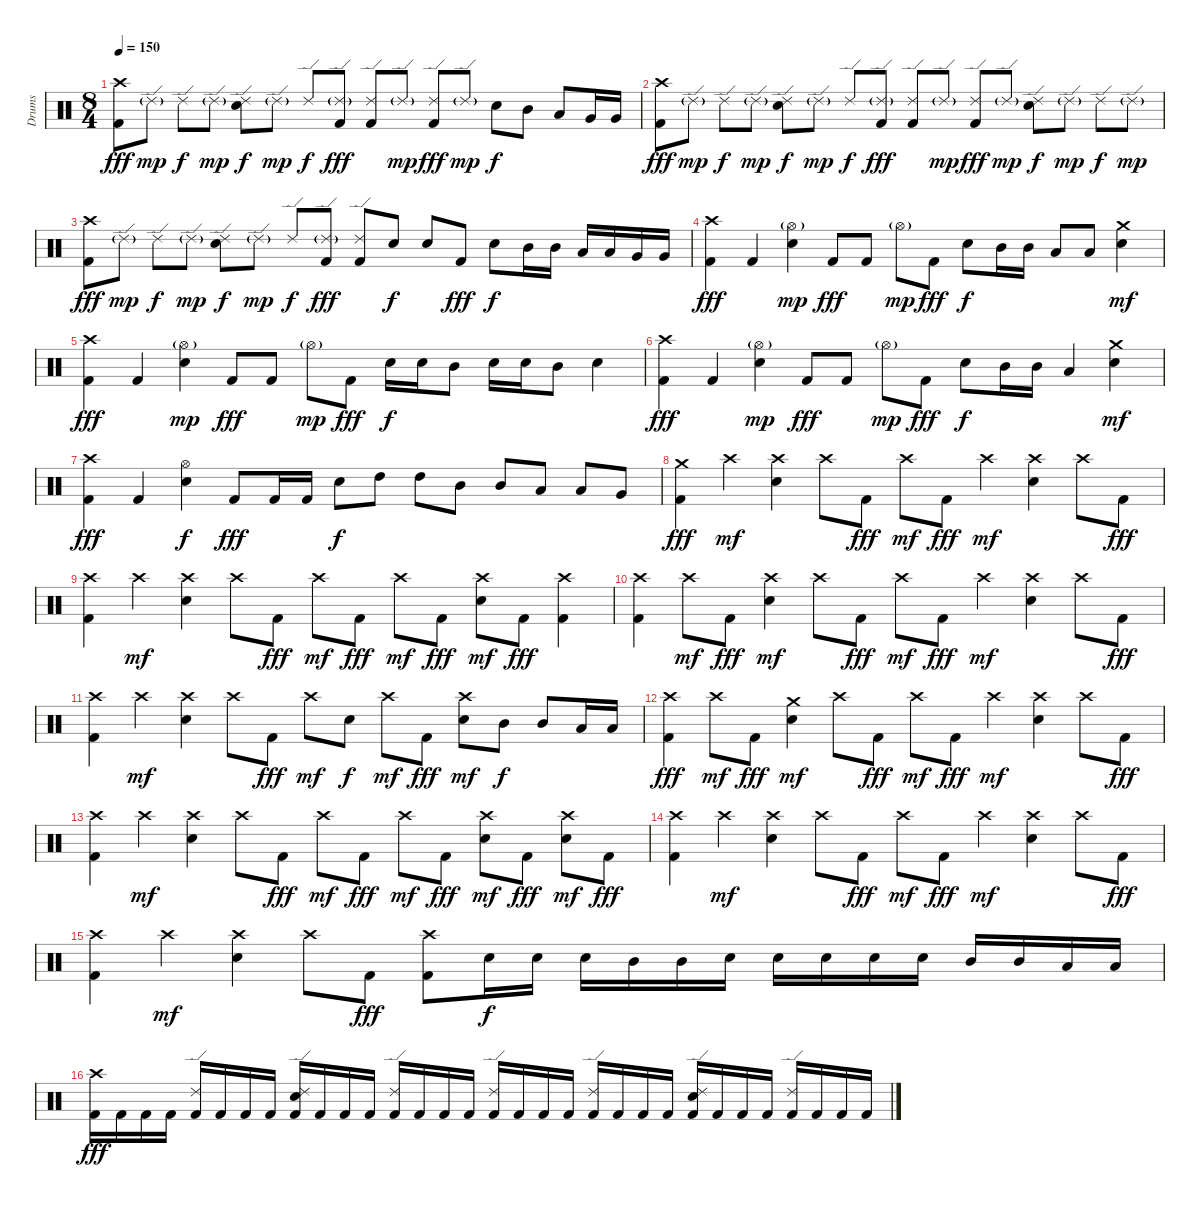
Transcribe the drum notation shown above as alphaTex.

\track ("Drums" "Drums") {instrument percussion}
\staff {score}
\articulation defaults
\ts (8 4)
\tempo 150
\clef neutral
\ks c
("Crash high (hit)" "Kick (hit) 2").8{dy fff} "Ride (edge) 2"{g}.8{dy mp} "Ride (edge) 2".8{dy f} "Ride (edge) 2"{g}.8{dy mp} ("Ride (edge) 2" "Snare (hit) 2").8{dy f} "Ride (edge) 2"{g}.8{dy mp} "Ride (edge) 2".8{dy f} ("Ride (edge) 2"{g} "Kick (hit) 2").8{dy fff} ("Ride (edge) 2" "Kick (hit) 2").8 "Ride (edge) 2"{g}.8{dy mp} ("Ride (edge) 2" "Kick (hit) 2").8{dy fff} "Ride (edge) 2"{g}.8{dy mp} "Snare (hit) 2".8{dy f} "Mid Tom (hit)".8 "Low Tom (hit)".8 "Very Low Tom (hit)".16 "Very Low Tom (hit)".16 |
("Crash high (hit)" "Kick (hit) 2").8{dy fff} "Ride (edge) 2"{g}.8{dy mp} "Ride (edge) 2".8{dy f} "Ride (edge) 2"{g}.8{dy mp} ("Ride (edge) 2" "Snare (hit) 2").8{dy f} "Ride (edge) 2"{g}.8{dy mp} "Ride (edge) 2".8{dy f} ("Ride (edge) 2"{g} "Kick (hit) 2").8{dy fff} ("Ride (edge) 2" "Kick (hit) 2").8 "Ride (edge) 2"{g}.8{dy mp} ("Ride (edge) 2" "Kick (hit) 2").8{dy fff} "Ride (edge) 2"{g}.8{dy mp} ("Ride (edge) 2" "Snare (hit) 2").8{dy f} "Ride (edge) 2"{g}.8{dy mp} "Ride (edge) 2".8{dy f} "Ride (edge) 2"{g}.8{dy mp} |
("Crash high (hit)" "Kick (hit) 2").8{dy fff} "Ride (edge) 2"{g}.8{dy mp} "Ride (edge) 2".8{dy f} "Ride (edge) 2"{g}.8{dy mp} ("Ride (edge) 2" "Snare (hit) 2").8{dy f} "Ride (edge) 2"{g}.8{dy mp} "Ride (edge) 2".8{dy f} ("Ride (edge) 2"{g} "Kick (hit) 2").8{dy fff} ("Ride (edge) 2" "Kick (hit) 2").8 "Snare (hit) 2".8{dy f} "Snare (hit) 2".8 "Kick (hit) 2".8{dy fff} "Snare (hit) 2".8{dy f} "Mid Tom (hit)".16 "Mid Tom (hit)".16 "Low Tom (hit)".16 "Low Tom (hit)".16 "Very Low Tom (hit)".16 "Very Low Tom (hit)".16 |
("Crash high (hit)" "Kick (hit) 2").4{dy fff} "Kick (hit) 2".4 ("Hi-Hat (open)"{g} "Snare (hit) 2").4{dy mp} "Kick (hit) 2".8{dy fff} "Kick (hit) 2".8 "Hi-Hat (open)"{g}.8{dy mp} "Kick (hit) 2".8{dy fff} "Snare (hit) 2".8{dy f} "Mid Tom (hit)".16 "Mid Tom (hit)".16 "Low Tom (hit)".8 "Low Tom (hit)".8 ("Crash medium (hit)" "Snare (hit) 2").4{dy mf} |
("Crash high (hit)" "Kick (hit) 2").4{dy fff} "Kick (hit) 2".4 ("Hi-Hat (open)"{g} "Snare (hit) 2").4{dy mp} "Kick (hit) 2".8{dy fff} "Kick (hit) 2".8 "Hi-Hat (open)"{g}.8{dy mp} "Kick (hit) 2".8{dy fff} "Snare (hit) 2".16{dy f} "Snare (hit) 2".16 "Mid Tom (hit)".8 "Snare (hit) 2".16 "Snare (hit) 2".16 "Mid Tom (hit)".8 "Snare (hit) 2".4 |
("Crash high (hit)" "Kick (hit) 2").4{dy fff} "Kick (hit) 2".4 ("Hi-Hat (open)"{g} "Snare (hit) 2").4{dy mp} "Kick (hit) 2".8{dy fff} "Kick (hit) 2".8 "Hi-Hat (open)"{g}.8{dy mp} "Kick (hit) 2".8{dy fff} "Snare (hit) 2".8{dy f} "Mid Tom (hit)".16 "Mid Tom (hit)".16 "Low Tom (hit)".4 ("Crash medium (hit)" "Snare (hit) 2").4{dy mf} |
("Crash high (hit)" "Kick (hit) 2").4{dy fff} "Kick (hit) 2".4 ("Hi-Hat (open)" "Snare (hit) 2").4{dy f} "Kick (hit) 2".8{dy fff} "Kick (hit) 2".16 "Kick (hit) 2".16 "Snare (hit) 2".8{dy f} "High Tom (hit)".8 "High Tom (hit)".8 "Mid Tom (hit)".8 "Mid Tom (hit)".8 "Low Tom (hit)".8 "Low Tom (hit)".8 "Very Low Tom (hit)".8 |
("Crash medium (hit)" "Kick (hit) 2").4{dy fff} "Crash high (hit)".4{dy mf} ("Crash high (hit)" "Snare (hit) 2").4 "Crash high (hit)".8 "Kick (hit) 2".8{dy fff} "Crash high (hit)".8{dy mf} "Kick (hit) 2".8{dy fff} "Crash high (hit)".4{dy mf} ("Crash high (hit)" "Snare (hit) 2").4 "Crash high (hit)".8 "Kick (hit) 2".8{dy fff} |
("Crash high (hit)" "Kick (hit) 2").4 "Crash high (hit)".4{dy mf} ("Crash high (hit)" "Snare (hit) 2").4 "Crash high (hit)".8 "Kick (hit) 2".8{dy fff} "Crash high (hit)".8{dy mf} "Kick (hit) 2".8{dy fff} "Crash high (hit)".8{dy mf} "Kick (hit) 2".8{dy fff} ("Crash high (hit)" "Snare (hit) 2").8{dy mf} "Kick (hit) 2".8{dy fff} ("Crash high (hit)" "Kick (hit) 2").4 |
("Crash high (hit)" "Kick (hit) 2").4 "Crash high (hit)".8{dy mf} "Kick (hit) 2".8{dy fff} ("Crash high (hit)" "Snare (hit) 2").4{dy mf} "Crash high (hit)".8 "Kick (hit) 2".8{dy fff} "Crash high (hit)".8{dy mf} "Kick (hit) 2".8{dy fff} "Crash high (hit)".4{dy mf} ("Crash high (hit)" "Snare (hit) 2").4 "Crash high (hit)".8 "Kick (hit) 2".8{dy fff} |
("Crash high (hit)" "Kick (hit) 2").4 "Crash high (hit)".4{dy mf} ("Crash high (hit)" "Snare (hit) 2").4 "Crash high (hit)".8 "Kick (hit) 2".8{dy fff} "Crash high (hit)".8{dy mf} "Snare (hit) 2".8{dy f} "Crash high (hit)".8{dy mf} "Kick (hit) 2".8{dy fff} ("Crash high (hit)" "Snare (hit) 2").8{dy mf} "Mid Tom (hit)".8{dy f} "Mid Tom (hit)".8 "Low Tom (hit)".16 "Low Tom (hit)".16 |
("Crash high (hit)" "Kick (hit) 2").4{dy fff} "Crash high (hit)".8{dy mf} "Kick (hit) 2".8{dy fff} ("Crash medium (hit)" "Snare (hit) 2").4{dy mf} "Crash high (hit)".8 "Kick (hit) 2".8{dy fff} "Crash high (hit)".8{dy mf} "Kick (hit) 2".8{dy fff} "Crash high (hit)".4{dy mf} ("Crash high (hit)" "Snare (hit) 2").4 "Crash high (hit)".8 "Kick (hit) 2".8{dy fff} |
("Crash high (hit)" "Kick (hit) 2").4 "Crash high (hit)".4{dy mf} ("Crash high (hit)" "Snare (hit) 2").4 "Crash high (hit)".8 "Kick (hit) 2".8{dy fff} "Crash high (hit)".8{dy mf} "Kick (hit) 2".8{dy fff} "Crash high (hit)".8{dy mf} "Kick (hit) 2".8{dy fff} ("Crash high (hit)" "Snare (hit) 2").8{dy mf} "Kick (hit) 2".8{dy fff} ("Crash high (hit)" "Snare (hit) 2").8{dy mf} "Kick (hit) 2".8{dy fff} |
("Crash high (hit)" "Kick (hit) 2").4 "Crash high (hit)".4{dy mf} ("Crash high (hit)" "Snare (hit) 2").4 "Crash high (hit)".8 "Kick (hit) 2".8{dy fff} "Crash high (hit)".8{dy mf} "Kick (hit) 2".8{dy fff} "Crash high (hit)".4{dy mf} ("Crash high (hit)" "Snare (hit) 2").4 "Crash high (hit)".8 "Kick (hit) 2".8{dy fff} |
("Crash high (hit)" "Kick (hit) 2").4 "Crash high (hit)".4{dy mf} ("Crash high (hit)" "Snare (hit) 2").4 "Crash high (hit)".8 "Kick (hit) 2".8{dy fff} ("Crash high (hit)" "Kick (hit) 2").8 "Snare (hit) 2".16{dy f} "Snare (hit) 2".16 "Snare (hit) 2".16 "Mid Tom (hit)".16 "Mid Tom (hit)".16 "Snare (hit) 2".16 "Snare (hit) 2".16 "Snare (hit) 2".16 "Snare (hit) 2".16 "Snare (hit) 2".16 "Mid Tom (hit)".16 "Mid Tom (hit)".16 "Low Tom (hit)".16 "Low Tom (hit)".16 |
("Crash high (hit)" "Kick (hit) 2").16{dy fff} "Kick (hit) 2".16 "Kick (hit) 2".16 "Kick (hit) 2".16 ("Ride (edge) 2" "Kick (hit) 2").16 "Kick (hit) 2".16 "Kick (hit) 2".16 "Kick (hit) 2".16 ("Ride (edge) 2" "Snare (hit) 2" "Kick (hit) 2").16 "Kick (hit) 2".16 "Kick (hit) 2".16 "Kick (hit) 2".16 ("Ride (edge) 2" "Kick (hit) 2").16 "Kick (hit) 2".16 "Kick (hit) 2".16 "Kick (hit) 2".16 ("Ride (edge) 2" "Kick (hit) 2").16 "Kick (hit) 2".16 "Kick (hit) 2".16 "Kick (hit) 2".16 ("Ride (edge) 2" "Kick (hit) 2").16 "Kick (hit) 2".16 "Kick (hit) 2".16 "Kick (hit) 2".16 ("Ride (edge) 2" "Snare (hit) 2" "Kick (hit) 2").16 "Kick (hit) 2".16 "Kick (hit) 2".16 "Kick (hit) 2".16 ("Ride (edge) 2" "Kick (hit) 2").16 "Kick (hit) 2".16 "Kick (hit) 2".16 "Kick (hit) 2".16
